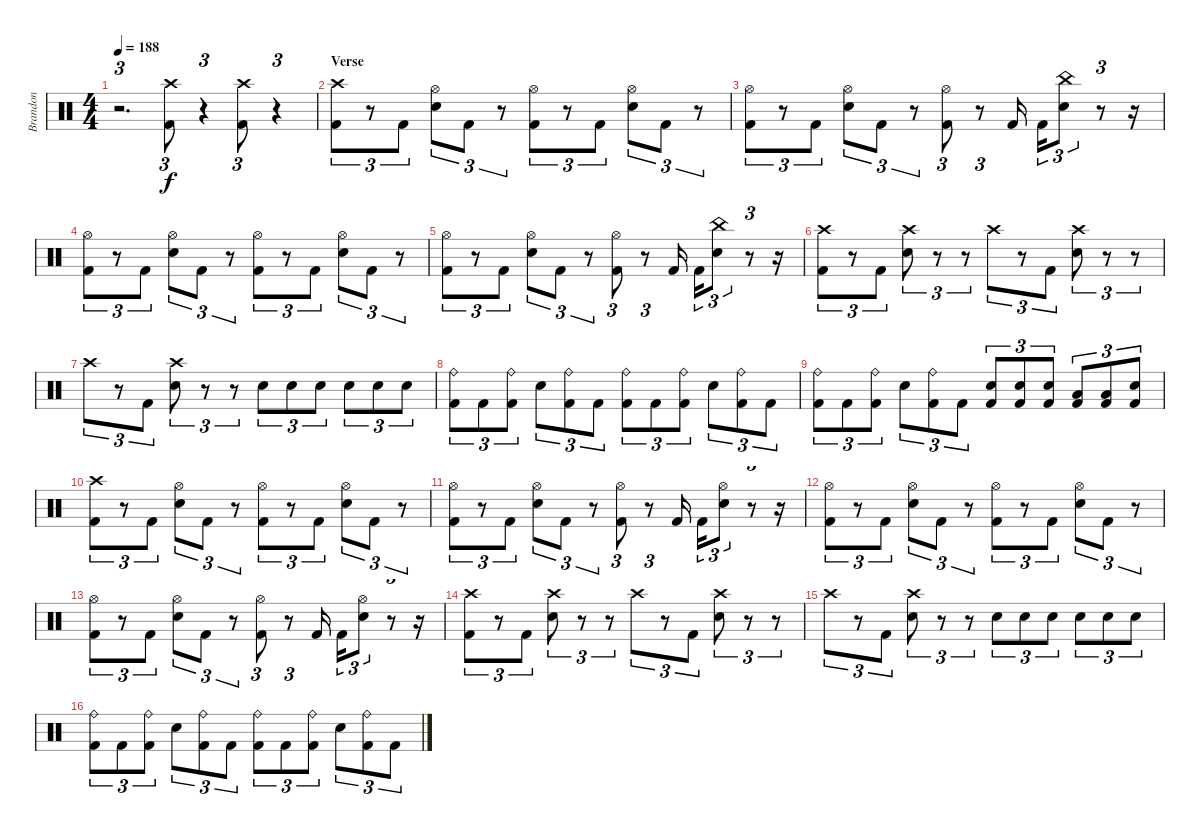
\track ("Brandon" "Brandon") {instrument percussion}
\staff {score}
\articulation defaults
\ts (4 4)
\tempo 188
\clef neutral
\ks c
r.2{d tu (3 2) dy p} ("Crash high (hit)" "Kick (hit) 2").8{tu (3 2) dy f} r.4{tu (3 2)} ("Crash high (hit)" "Kick (hit) 2").8{tu (3 2)} r.4{tu (3 2)} |
\section ("" "Verse")
("Crash high (hit)" "Kick (hit) 2").8{tu (3 2)} r.8{tu (3 2)} "Kick (hit) 2".8{tu (3 2)} ("Hi-Hat (open)" "Snare (hit) 2").8{tu (3 2)} "Kick (hit) 2".8{tu (3 2)} r.8{tu (3 2)} ("Hi-Hat (open)" "Kick (hit) 2").8{tu (3 2)} r.8{tu (3 2)} "Kick (hit) 2".8{tu (3 2)} ("Hi-Hat (open)" "Snare (hit) 2").8{tu (3 2)} "Kick (hit) 2".8{tu (3 2)} r.8{tu (3 2)} |
("Hi-Hat (open)" "Kick (hit) 2").8{tu (3 2)} r.8{tu (3 2)} "Kick (hit) 2".8{tu (3 2)} ("Hi-Hat (open)" "Snare (hit) 2").8{tu (3 2)} "Kick (hit) 2".8{tu (3 2)} r.8{tu (3 2)} ("Hi-Hat (open)" "Kick (hit) 2").8{tu (3 2)} r.8{tu (3 2)} "Kick (hit) 2".16 "Kick (hit) 2".16{tu (3 2)} ("China (hit)" "Snare (hit) 2").8{tu (3 2)} r.8{tu (3 2)} r.16 |
("Hi-Hat (open)" "Kick (hit) 2").8{tu (3 2)} r.8{tu (3 2)} "Kick (hit) 2".8{tu (3 2)} ("Hi-Hat (open)" "Snare (hit) 2").8{tu (3 2)} "Kick (hit) 2".8{tu (3 2)} r.8{tu (3 2)} ("Hi-Hat (open)" "Kick (hit) 2").8{tu (3 2)} r.8{tu (3 2)} "Kick (hit) 2".8{tu (3 2)} ("Hi-Hat (open)" "Snare (hit) 2").8{tu (3 2)} "Kick (hit) 2".8{tu (3 2)} r.8{tu (3 2)} |
("Hi-Hat (open)" "Kick (hit) 2").8{tu (3 2)} r.8{tu (3 2)} "Kick (hit) 2".8{tu (3 2)} ("Hi-Hat (open)" "Snare (hit) 2").8{tu (3 2)} "Kick (hit) 2".8{tu (3 2)} r.8{tu (3 2)} ("Hi-Hat (open)" "Kick (hit) 2").8{tu (3 2)} r.8{tu (3 2)} "Kick (hit) 2".16 "Kick (hit) 2".16{tu (3 2)} ("China (hit)" "Snare (hit) 2").8{tu (3 2)} r.8{tu (3 2)} r.16 |
("Crash high (hit)" "Kick (hit) 2").8{tu (3 2)} r.8{tu (3 2)} "Kick (hit) 2".8{tu (3 2)} ("Crash high (hit)" "Snare (hit) 2").8{tu (3 2)} r.8{tu (3 2)} r.8{tu (3 2)} "Crash high (hit)".8{tu (3 2)} r.8{tu (3 2)} "Kick (hit) 2".8{tu (3 2)} ("Crash high (hit)" "Snare (hit) 2").8{tu (3 2)} r.8{tu (3 2)} r.8{tu (3 2)} |
"Crash high (hit)".8{tu (3 2)} r.8{tu (3 2)} "Kick (hit) 2".8{tu (3 2)} ("Crash high (hit)" "Snare (hit) 2").8{tu (3 2)} r.8{tu (3 2)} r.8{tu (3 2)} "Snare (hit) 2".8{tu (3 2)} "Snare (hit) 2".8{tu (3 2)} "Snare (hit) 2".8{tu (3 2)} "Snare (hit) 2".8{tu (3 2)} "Snare (hit) 2".8{tu (3 2)} "Snare (hit) 2".8{tu (3 2)} |
("Ride (bell)" "Kick (hit) 2").8{tu (3 2)} "Kick (hit) 2".8{tu (3 2)} ("Ride (bell)" "Kick (hit) 2").8{tu (3 2)} "Snare (hit) 2".8{tu (3 2)} ("Ride (bell)" "Kick (hit) 2").8{tu (3 2)} "Kick (hit) 2".8{tu (3 2)} ("Ride (bell)" "Kick (hit) 2").8{tu (3 2)} "Kick (hit) 2".8{tu (3 2)} ("Ride (bell)" "Kick (hit) 2").8{tu (3 2)} "Snare (hit) 2".8{tu (3 2)} ("Ride (bell)" "Kick (hit) 2").8{tu (3 2)} "Kick (hit) 2".8{tu (3 2)} |
("Ride (bell)" "Kick (hit) 2").8{tu (3 2)} "Kick (hit) 2".8{tu (3 2)} ("Ride (bell)" "Kick (hit) 2").8{tu (3 2)} "Snare (hit) 2".8{tu (3 2)} ("Ride (bell)" "Kick (hit) 2").8{tu (3 2)} "Kick (hit) 2".8{tu (3 2)} ("Snare (hit) 2" "Kick (hit) 2").8{tu (3 2)} ("Snare (hit) 2" "Kick (hit) 2").8{tu (3 2)} ("Snare (hit) 2" "Kick (hit) 2").8{tu (3 2)} ("Low Tom (hit)" "Kick (hit) 2").8{tu (3 2)} ("Low Tom (hit)" "Kick (hit) 2").8{tu (3 2)} ("Snare (hit) 2" "Kick (hit) 2").8{tu (3 2)} |
("Crash high (hit)" "Kick (hit) 2").8{tu (3 2)} r.8{tu (3 2)} "Kick (hit) 2".8{tu (3 2)} ("Hi-Hat (open)" "Snare (hit) 2").8{tu (3 2)} "Kick (hit) 2".8{tu (3 2)} r.8{tu (3 2)} ("Hi-Hat (open)" "Kick (hit) 2").8{tu (3 2)} r.8{tu (3 2)} "Kick (hit) 2".8{tu (3 2)} ("Hi-Hat (open)" "Snare (hit) 2").8{tu (3 2)} "Kick (hit) 2".8{tu (3 2)} r.8{tu (3 2)} |
("Hi-Hat (open)" "Kick (hit) 2").8{tu (3 2)} r.8{tu (3 2)} "Kick (hit) 2".8{tu (3 2)} ("Hi-Hat (open)" "Snare (hit) 2").8{tu (3 2)} "Kick (hit) 2".8{tu (3 2)} r.8{tu (3 2)} ("Hi-Hat (open)" "Kick (hit) 2").8{tu (3 2)} r.8{tu (3 2)} "Kick (hit) 2".16 "Kick (hit) 2".16{tu (3 2)} ("Hi-Hat (open)" "Snare (hit) 2").8{tu (3 2)} r.8{tu (3 2)} r.16 |
("Hi-Hat (open)" "Kick (hit) 2").8{tu (3 2)} r.8{tu (3 2)} "Kick (hit) 2".8{tu (3 2)} ("Hi-Hat (open)" "Snare (hit) 2").8{tu (3 2)} "Kick (hit) 2".8{tu (3 2)} r.8{tu (3 2)} ("Hi-Hat (open)" "Kick (hit) 2").8{tu (3 2)} r.8{tu (3 2)} "Kick (hit) 2".8{tu (3 2)} ("Hi-Hat (open)" "Snare (hit) 2").8{tu (3 2)} "Kick (hit) 2".8{tu (3 2)} r.8{tu (3 2)} |
("Hi-Hat (open)" "Kick (hit) 2").8{tu (3 2)} r.8{tu (3 2)} "Kick (hit) 2".8{tu (3 2)} ("Hi-Hat (open)" "Snare (hit) 2").8{tu (3 2)} "Kick (hit) 2".8{tu (3 2)} r.8{tu (3 2)} ("Hi-Hat (open)" "Kick (hit) 2").8{tu (3 2)} r.8{tu (3 2)} "Kick (hit) 2".16 "Kick (hit) 2".16{tu (3 2)} ("Hi-Hat (open)" "Snare (hit) 2").8{tu (3 2)} r.8{tu (3 2)} r.16 |
("Crash high (hit)" "Kick (hit) 2").8{tu (3 2)} r.8{tu (3 2)} "Kick (hit) 2".8{tu (3 2)} ("Crash high (hit)" "Snare (hit) 2").8{tu (3 2)} r.8{tu (3 2)} r.8{tu (3 2)} "Crash high (hit)".8{tu (3 2)} r.8{tu (3 2)} "Kick (hit) 2".8{tu (3 2)} ("Crash high (hit)" "Snare (hit) 2").8{tu (3 2)} r.8{tu (3 2)} r.8{tu (3 2)} |
"Crash high (hit)".8{tu (3 2)} r.8{tu (3 2)} "Kick (hit) 2".8{tu (3 2)} ("Crash high (hit)" "Snare (hit) 2").8{tu (3 2)} r.8{tu (3 2)} r.8{tu (3 2)} "Snare (hit) 2".8{tu (3 2)} "Snare (hit) 2".8{tu (3 2)} "Snare (hit) 2".8{tu (3 2)} "Snare (hit) 2".8{tu (3 2)} "Snare (hit) 2".8{tu (3 2)} "Snare (hit) 2".8{tu (3 2)} |
("Ride (bell)" "Kick (hit) 2").8{tu (3 2)} "Kick (hit) 2".8{tu (3 2)} ("Ride (bell)" "Kick (hit) 2").8{tu (3 2)} "Snare (hit) 2".8{tu (3 2)} ("Ride (bell)" "Kick (hit) 2").8{tu (3 2)} "Kick (hit) 2".8{tu (3 2)} ("Ride (bell)" "Kick (hit) 2").8{tu (3 2)} "Kick (hit) 2".8{tu (3 2)} ("Ride (bell)" "Kick (hit) 2").8{tu (3 2)} "Snare (hit) 2".8{tu (3 2)} ("Ride (bell)" "Kick (hit) 2").8{tu (3 2)} "Kick (hit) 2".8{tu (3 2)}
